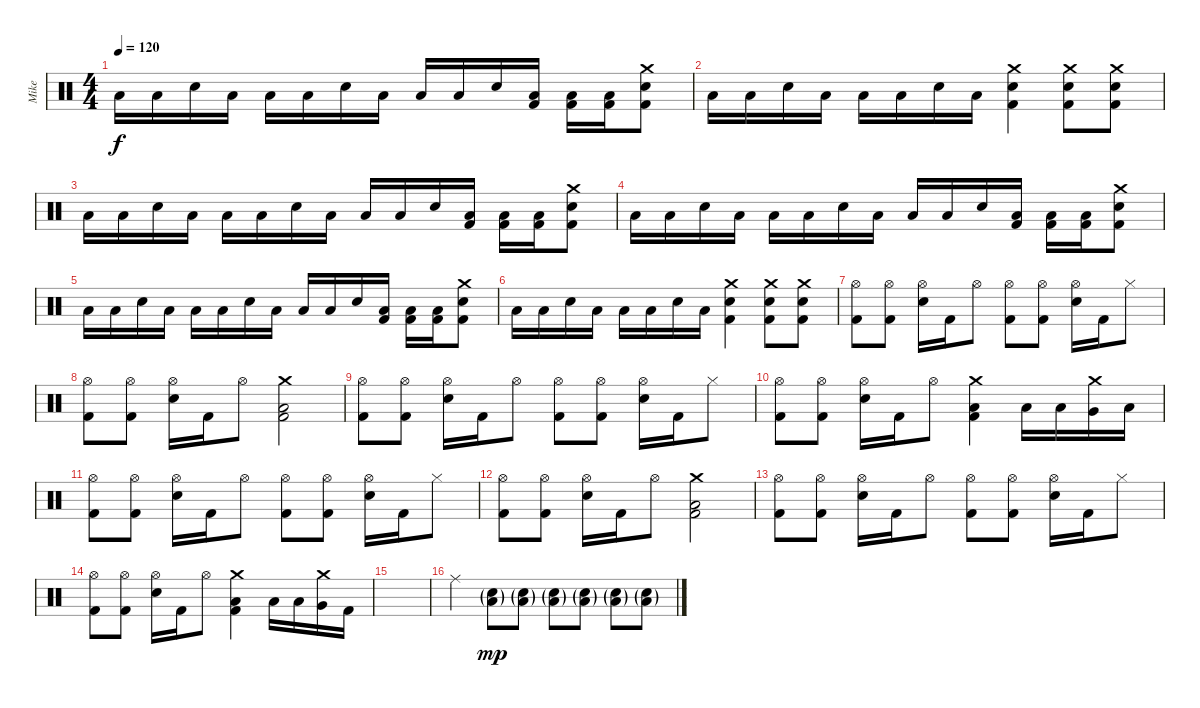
\track ("Mike" "Mike") {instrument percussion}
\staff {score}
\articulation defaults
\ts (4 4)
\tempo 120
\clef neutral
\ks c "Low Floor Tom (hit)".16{dy f} "Low Floor Tom (hit)".16 "Electric Snare (hit)".16 "Low Floor Tom (hit)".16 "Low Floor Tom (hit)".16 "Low Floor Tom (hit)".16 "Electric Snare (hit)".16 "Low Floor Tom (hit)".16 "Low Floor Tom (hit)".16 "Low Floor Tom (hit)".16 "Electric Snare (hit)".16
("Low Floor Tom (hit)" "Kick (hit) 2").16 ("Low Floor Tom (hit)" "Kick (hit) 2").16 ("Low Floor Tom (hit)" "Kick (hit) 2").16 ("Crash medium (hit)" "Electric Snare (hit)" "Kick (hit) 2").8 |
"Low Floor Tom (hit)".16 "Low Floor Tom (hit)".16 "Electric Snare (hit)".16 "Low Floor Tom (hit)".16 "Low Floor Tom (hit)".16 "Low Floor Tom (hit)".16 "Electric Snare (hit)".16 "Low Floor Tom (hit)".16 ("Crash medium (hit)" "Electric Snare (hit)" "Kick (hit) 2").4 ("Crash medium (hit)" "Electric Snare (hit)" "Kick (hit) 2").8 ("Crash medium (hit)" "Electric Snare (hit)" "Kick (hit) 2").8 |
"Low Floor Tom (hit)".16 "Low Floor Tom (hit)".16 "Electric Snare (hit)".16 "Low Floor Tom (hit)".16 "Low Floor Tom (hit)".16 "Low Floor Tom (hit)".16 "Electric Snare (hit)".16 "Low Floor Tom (hit)".16 "Low Floor Tom (hit)".16 "Low Floor Tom (hit)".16 "Electric Snare (hit)".16 ("Low Floor Tom (hit)" "Kick (hit) 2").16 ("Low Floor Tom (hit)" "Kick (hit) 2").16 ("Low Floor Tom (hit)" "Kick (hit) 2").16 ("Crash medium (hit)" "Electric Snare (hit)" "Kick (hit) 2").8 |
"Low Floor Tom (hit)".16 "Low Floor Tom (hit)".16 "Electric Snare (hit)".16 "Low Floor Tom (hit)".16 "Low Floor Tom (hit)".16 "Low Floor Tom (hit)".16 "Electric Snare (hit)".16 "Low Floor Tom (hit)".16 "Low Floor Tom (hit)".16 "Low Floor Tom (hit)".16 "Electric Snare (hit)".16 ("Low Floor Tom (hit)" "Kick (hit) 2").16 ("Low Floor Tom (hit)" "Kick (hit) 2").16 ("Low Floor Tom (hit)" "Kick (hit) 2").16 ("Crash medium (hit)" "Electric Snare (hit)" "Kick (hit) 2").8 |
"Low Floor Tom (hit)".16 "Low Floor Tom (hit)".16 "Electric Snare (hit)".16 "Low Floor Tom (hit)".16 "Low Floor Tom (hit)".16 "Low Floor Tom (hit)".16 "Electric Snare (hit)".16 "Low Floor Tom (hit)".16 "Low Floor Tom (hit)".16 "Low Floor Tom (hit)".16 "Electric Snare (hit)".16 ("Low Floor Tom (hit)" "Kick (hit) 2").16 ("Low Floor Tom (hit)" "Kick (hit) 2").16 ("Low Floor Tom (hit)" "Kick (hit) 2").16 ("Crash medium (hit)" "Electric Snare (hit)" "Kick (hit) 2").8 |
"Low Floor Tom (hit)".16 "Low Floor Tom (hit)".16 "Electric Snare (hit)".16 "Low Floor Tom (hit)".16 "Low Floor Tom (hit)".16 "Low Floor Tom (hit)".16 "Electric Snare (hit)".16 "Low Floor Tom (hit)".16 ("Crash medium (hit)" "Electric Snare (hit)" "Kick (hit) 2").4 ("Crash medium (hit)" "Electric Snare (hit)" "Kick (hit) 2").8 ("Crash medium (hit)" "Electric Snare (hit)" "Kick (hit) 2").8 |
("Hi-Hat (open)" "Kick (hit) 2").8 ("Hi-Hat (open)" "Kick (hit) 2").8 ("Hi-Hat (open)" "Electric Snare (hit)").16 "Kick (hit) 2".16 "Hi-Hat (open)".8 ("Hi-Hat (open)" "Kick (hit) 2").8 ("Hi-Hat (open)" "Kick (hit) 2").8 ("Hi-Hat (open)" "Electric Snare (hit)").16 "Kick (hit) 2".16 "Hi-Hat (closed)".8 |
("Hi-Hat (open)" "Kick (hit) 2").8 ("Hi-Hat (open)" "Kick (hit) 2").8 ("Hi-Hat (open)" "Electric Snare (hit)").16 "Kick (hit) 2".16 "Hi-Hat (open)".8 ("Crash medium (hit)" "Low Floor Tom (hit)" "Kick (hit) 2").2 |
("Hi-Hat (open)" "Kick (hit) 2").8 ("Hi-Hat (open)" "Kick (hit) 2").8 ("Hi-Hat (open)" "Electric Snare (hit)").16 "Kick (hit) 2".16 "Hi-Hat (open)".8 ("Hi-Hat (open)" "Kick (hit) 2").8 ("Hi-Hat (open)" "Kick (hit) 2").8 ("Hi-Hat (open)" "Electric Snare (hit)").16 "Kick (hit) 2".16 "Hi-Hat (closed)".8 |
("Hi-Hat (open)" "Kick (hit) 2").8 ("Hi-Hat (open)" "Kick (hit) 2").8 ("Hi-Hat (open)" "Electric Snare (hit)").16 "Kick (hit) 2".16 "Hi-Hat (open)".8 ("Crash medium (hit)" "Low Floor Tom (hit)" "Kick (hit) 2").4 "Low Tom (hit)".16 "Low Floor Tom (hit)".16 ("Crash medium (hit)" "Very Low Tom (hit)").16 "Low Floor Tom (hit)".16 |
("Hi-Hat (open)" "Kick (hit) 2").8 ("Hi-Hat (open)" "Kick (hit) 2").8 ("Hi-Hat (open)" "Electric Snare (hit)").16 "Kick (hit) 2".16 "Hi-Hat (open)".8 ("Hi-Hat (open)" "Kick (hit) 2").8 ("Hi-Hat (open)" "Kick (hit) 2").8 ("Hi-Hat (open)" "Electric Snare (hit)").16 "Kick (hit) 2".16 "Hi-Hat (closed)".8 |
("Hi-Hat (open)" "Kick (hit) 2").8 ("Hi-Hat (open)" "Kick (hit) 2").8 ("Hi-Hat (open)" "Electric Snare (hit)").16 "Kick (hit) 2".16 "Hi-Hat (open)".8 ("Crash medium (hit)" "Low Floor Tom (hit)" "Kick (hit) 2").2 |
("Hi-Hat (open)" "Kick (hit) 2").8 ("Hi-Hat (open)" "Kick (hit) 2").8 ("Hi-Hat (open)" "Electric Snare (hit)").16 "Kick (hit) 2".16 "Hi-Hat (open)".8 ("Hi-Hat (open)" "Kick (hit) 2").8 ("Hi-Hat (open)" "Kick (hit) 2").8 ("Hi-Hat (open)" "Electric Snare (hit)").16 "Kick (hit) 2".16 "Hi-Hat (closed)".8 |
("Hi-Hat (open)" "Kick (hit) 2").8 ("Hi-Hat (open)" "Kick (hit) 2").8 ("Hi-Hat (open)" "Electric Snare (hit)").16 "Kick (hit) 2".16 "Hi-Hat (open)".8 ("Crash medium (hit)" "Low Floor Tom (hit)" "Kick (hit) 2").4 "Low Tom (hit)".16 "Low Floor Tom (hit)".16 ("Crash medium (hit)" "Very Low Tom (hit)").16 "Kick (hit) 2".16 |
|
"Ride (middle)".4 ("Low Floor Tom (hit)"{g} "Electric Snare (hit)"{g}).8{dy mp} ("Low Floor Tom (hit)"{g} "Electric Snare (hit)"{g}).8 ("Low Floor Tom (hit)"{g} "Electric Snare (hit)"{g}).8 ("Low Floor Tom (hit)"{g} "Electric Snare (hit)"{g}).8 ("Low Floor Tom (hit)"{g} "Electric Snare (hit)"{g}).8 ("Low Floor Tom (hit)"{g} "Electric Snare (hit)"{g}).8
